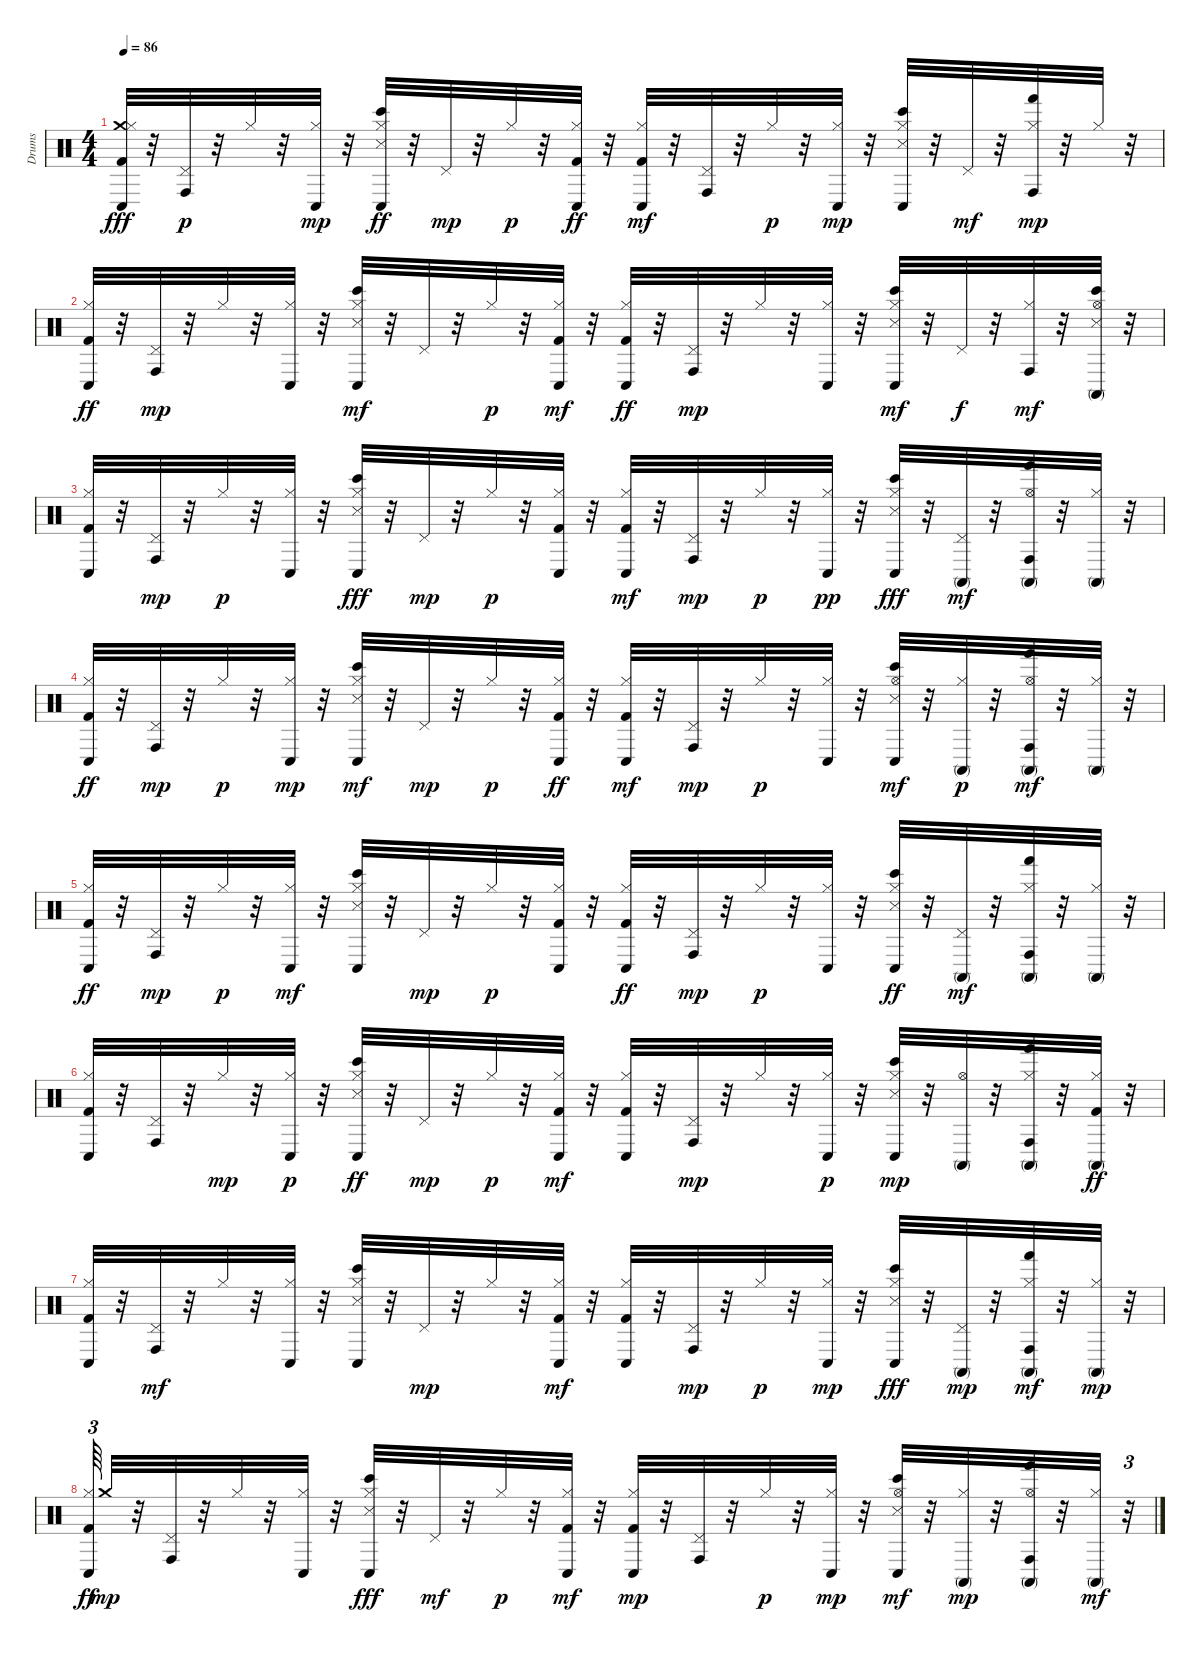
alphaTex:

\track ("Drums" "Drums") {instrument percussion}
\staff {score}
\articulation defaults
\ts (4 4)
\tempo 86
\clef neutral
\ks c
("Crash medium (hit)" "Conga low (hit)" "Kick (hit) 2" "Hi-Hat (closed)").32{dy fff} r.32 ("Conga high (hit)" "Pedal Hi-Hat (hit)").32{dy p} r.32 "Hi-Hat (closed)".32 r.32 ("Conga low (hit)" "Hi-Hat (closed)").32{dy mp} r.32 ("Bongo High (hit)" "Conga low (hit)" "Snare (side stick) 3" "Hi-Hat (closed)").32{dy ff} r.32 "Pedal Hi-Hat (hit)".32{dy mp} r.32 "Hi-Hat (closed)".32{dy p} r.32 ("Conga low (hit)" "Hi-Hat (closed)" "Kick (hit) 2").32{dy ff} r.32 ("Kick (hit) 2" "Conga low (hit)" "Hi-Hat (closed)").32{dy mf} r.32 ("Conga high (hit)" "Pedal Hi-Hat (hit)").32 r.32 "Hi-Hat (closed)".32{dy p} r.32 ("Conga low (hit)" "Hi-Hat (closed)").32{dy mp} r.32 ("Conga low (hit)" "Snare (side stick) 3" "Bongo High (hit)" "Hi-Hat (closed)").32 r.32 "Pedal Hi-Hat (hit)".32{dy mf} r.32 ("Conga high (hit)" "Hand (hit)" "Hi-Hat (closed)").32{dy mp} r.32 "Hi-Hat (closed)".32 r.32 |
("Conga low (hit)" "Kick (hit) 2" "Hi-Hat (closed)").32{dy ff} r.32 ("Conga high (hit)" "Pedal Hi-Hat (hit)").32{dy mp} r.32 "Hi-Hat (closed)".32 r.32 ("Conga low (hit)" "Hi-Hat (closed)").32 r.32 ("Conga low (hit)" "Snare (side stick) 3" "Bongo High (hit)" "Hi-Hat (closed)").32{dy mf} r.32 "Pedal Hi-Hat (hit)".32 r.32 "Hi-Hat (closed)".32{dy p} r.32 ("Conga low (hit)" "Kick (hit) 2" "Hi-Hat (closed)").32{dy mf} r.32 ("Conga low (hit)" "Kick (hit) 2" "Hi-Hat (closed)").32{dy ff} r.32 ("Pedal Hi-Hat (hit)" "Conga high (hit)").32{dy mp} r.32 "Hi-Hat (closed)".32 r.32 ("Conga low (hit)" "Hi-Hat (closed)").32 r.32 ("Bongo High (hit)" "Conga low (hit)" "Snare (side stick) 3" "Hi-Hat (closed)").32{dy mf} r.32 "Pedal Hi-Hat (hit)".32{dy f} r.32 ("Hi-Hat (closed)" "Conga high (hit)").32{dy mf} r.32 ("Snare (side stick) 3" "Hi-Hat (open)" "Bongo High (hit)" "Conga high (mute)").32 r.32 |
("Kick (hit) 2" "Conga low (hit)" "Hi-Hat (closed)").32 r.32 ("Pedal Hi-Hat (hit)" "Conga high (hit)").32{dy mp} r.32 "Hi-Hat (closed)".32{dy p} r.32 ("Conga low (hit)" "Hi-Hat (closed)").32 r.32 ("Bongo High (hit)" "Conga low (hit)" "Hi-Hat (closed)" "Snare (side stick) 3").32{dy fff} r.32 "Pedal Hi-Hat (hit)".32{dy mp} r.32 "Hi-Hat (closed)".32{dy p} r.32 ("Conga low (hit)" "Kick (hit) 2" "Hi-Hat (closed)").32 r.32 ("Conga low (hit)" "Kick (hit) 2" "Hi-Hat (closed)").32{dy mf} r.32 ("Pedal Hi-Hat (hit)" "Conga high (hit)").32{dy mp} r.32 "Hi-Hat (closed)".32{dy p} r.32 ("Conga low (hit)" "Hi-Hat (closed)").32{dy pp} r.32 ("Bongo High (hit)" "Conga low (hit)" "Hi-Hat (closed)" "Snare (side stick) 3").32{dy fff} r.32 ("Conga high (mute)" "Pedal Hi-Hat (hit)").32{dy mf} r.32 ("Hi-Hat (open)" "Conga high (mute)" "Conga high (hit)" "Hand (hit)").32 r.32 ("Hi-Hat (closed)" "Conga high (mute)").32 r.32 |
("Hi-Hat (closed)" "Conga low (hit)" "Kick (hit) 2").32{dy ff} r.32 ("Pedal Hi-Hat (hit)" "Conga high (hit)").32{dy mp} r.32 "Hi-Hat (closed)".32{dy p} r.32 ("Conga low (hit)" "Hi-Hat (closed)").32{dy mp} r.32 ("Snare (side stick) 3" "Hi-Hat (closed)" "Bongo High (hit)" "Conga low (hit)").32{dy mf} r.32 "Pedal Hi-Hat (hit)".32{dy mp} r.32 "Hi-Hat (closed)".32{dy p} r.32 ("Hi-Hat (closed)" "Conga low (hit)" "Kick (hit) 2").32{dy ff} r.32 ("Conga low (hit)" "Kick (hit) 2" "Hi-Hat (closed)").32{dy mf} r.32 ("Pedal Hi-Hat (hit)" "Conga high (hit)").32{dy mp} r.32 "Hi-Hat (closed)".32{dy p} r.32 ("Conga low (hit)" "Hi-Hat (closed)").32 r.32 ("Conga low (hit)" "Bongo High (hit)" "Snare (side stick) 3" "Hi-Hat (open)").32{dy mf} r.32 ("Conga high (mute)" "Hi-Hat (closed)").32{dy p} r.32 ("Conga high (hit)" "Hi-Hat (open)" "Conga high (mute)" "Hand (hit)").32{dy mf} r.32 ("Hi-Hat (closed)" "Conga high (mute)").32 r.32 |
("Conga low (hit)" "Kick (hit) 2" "Hi-Hat (closed)").32{dy ff} r.32 ("Conga high (hit)" "Pedal Hi-Hat (hit)").32{dy mp} r.32 "Hi-Hat (closed)".32{dy p} r.32 ("Hi-Hat (closed)" "Conga low (hit)").32{dy mf} r.32 ("Snare (side stick) 3" "Bongo High (hit)" "Hi-Hat (closed)" "Conga low (hit)").32 r.32 "Pedal Hi-Hat (hit)".32{dy mp} r.32 "Hi-Hat (closed)".32{dy p} r.32 ("Kick (hit) 2" "Conga low (hit)" "Hi-Hat (closed)").32 r.32 ("Conga low (hit)" "Hi-Hat (closed)" "Kick (hit) 2").32{dy ff} r.32 ("Pedal Hi-Hat (hit)" "Conga high (hit)").32{dy mp} r.32 "Hi-Hat (closed)".32{dy p} r.32 ("Conga low (hit)" "Hi-Hat (closed)").32 r.32 ("Conga low (hit)" "Bongo High (hit)" "Hi-Hat (closed)" "Snare (side stick) 3").32{dy ff} r.32 ("Conga high (mute)" "Pedal Hi-Hat (hit)").32{dy mf} r.32 ("Conga high (hit)" "Conga high (mute)" "Hi-Hat (closed)" "Hand (hit)").32 r.32 ("Hi-Hat (closed)" "Conga high (mute)").32 r.32 |
("Kick (hit) 2" "Conga low (hit)" "Hi-Hat (closed)").32 r.32 ("Pedal Hi-Hat (hit)" "Conga high (hit)").32 r.32 "Hi-Hat (closed)".32{dy mp} r.32 ("Conga low (hit)" "Hi-Hat (closed)").32{dy p} r.32 ("Conga low (hit)" "Snare (side stick) 3" "Bongo High (hit)" "Hi-Hat (closed)").32{dy ff} r.32 "Pedal Hi-Hat (hit)".32{dy mp} r.32 "Hi-Hat (closed)".32{dy p} r.32 ("Kick (hit) 2" "Hi-Hat (closed)" "Conga low (hit)").32{dy mf} r.32 ("Hi-Hat (closed)" "Conga low (hit)" "Kick (hit) 2").32 r.32 ("Pedal Hi-Hat (hit)" "Conga high (hit)").32{dy mp} r.32 "Hi-Hat (closed)".32 r.32 ("Conga low (hit)" "Hi-Hat (closed)").32{dy p} r.32 ("Snare (side stick) 3" "Conga low (hit)" "Bongo High (hit)" "Hi-Hat (closed)").32{dy mp} r.32 ("Conga high (mute)" "Hi-Hat (open)").32 r.32 ("Hi-Hat (closed)" "Conga high (hit)" "Conga high (mute)" "Hand (hit)").32 r.32 ("Conga high (mute)" "Hi-Hat (closed)" "Kick (hit) 2").32{dy ff} r.32 |
("Hi-Hat (closed)" "Conga low (hit)" "Kick (hit) 2").32 r.32 ("Pedal Hi-Hat (hit)" "Conga high (hit)").32{dy mf} r.32 "Hi-Hat (closed)".32 r.32 ("Hi-Hat (closed)" "Conga low (hit)").32 r.32 ("Hi-Hat (closed)" "Conga low (hit)" "Bongo High (hit)" "Snare (side stick) 3").32 r.32 "Pedal Hi-Hat (hit)".32{dy mp} r.32 "Hi-Hat (closed)".32 r.32 ("Hi-Hat (closed)" "Kick (hit) 2" "Conga low (hit)").32{dy mf} r.32 ("Hi-Hat (closed)" "Kick (hit) 2" "Conga low (hit)").32 r.32 ("Pedal Hi-Hat (hit)" "Conga high (hit)").32{dy mp} r.32 "Hi-Hat (closed)".32{dy p} r.32 ("Conga low (hit)" "Hi-Hat (closed)").32{dy mp} r.32 ("Conga low (hit)" "Bongo High (hit)" "Snare (side stick) 3" "Hi-Hat (closed)").32{dy fff} r.32 ("Conga high (mute)" "Pedal Hi-Hat (hit)").32{dy mp} r.32 ("Hi-Hat (closed)" "Conga high (hit)" "Conga high (mute)" "Hand (hit)").32{dy mf} r.32 ("Conga high (mute)" "Hi-Hat (closed)").32{dy mp} r.32 |
("Conga low (hit)" "Kick (hit) 2" "Hi-Hat (closed)").64{tu (3 2) dy ff} "Crash medium (hit)".32{dy mp} r.32 ("Pedal Hi-Hat (hit)" "Conga high (hit)").32 r.32 "Hi-Hat (closed)".32 r.32 ("Conga low (hit)" "Hi-Hat (closed)").32 r.32 ("Bongo High (hit)" "Conga low (hit)" "Snare (side stick) 3" "Hi-Hat (closed)").32{dy fff} r.32 "Pedal Hi-Hat (hit)".32{dy mf} r.32 "Hi-Hat (closed)".32{dy p} r.32 ("Kick (hit) 2" "Conga low (hit)" "Hi-Hat (closed)").32{dy mf} r.32 ("Conga low (hit)" "Hi-Hat (closed)" "Kick (hit) 2").32{dy mp} r.32 ("Pedal Hi-Hat (hit)" "Conga high (hit)").32 r.32 "Hi-Hat (closed)".32{dy p} r.32 ("Conga low (hit)" "Hi-Hat (closed)").32{dy mp} r.32 ("Conga low (hit)" "Bongo High (hit)" "Snare (side stick) 3" "Hi-Hat (open)").32{dy mf} r.32 ("Conga high (mute)" "Hi-Hat (closed)").32{dy mp} r.32 ("Hi-Hat (open)" "Conga high (mute)" "Conga high (hit)" "Hand (hit)").32 r.32 ("Hi-Hat (closed)" "Conga high (mute)").32{dy mf} r.32{tu (3 2)}
